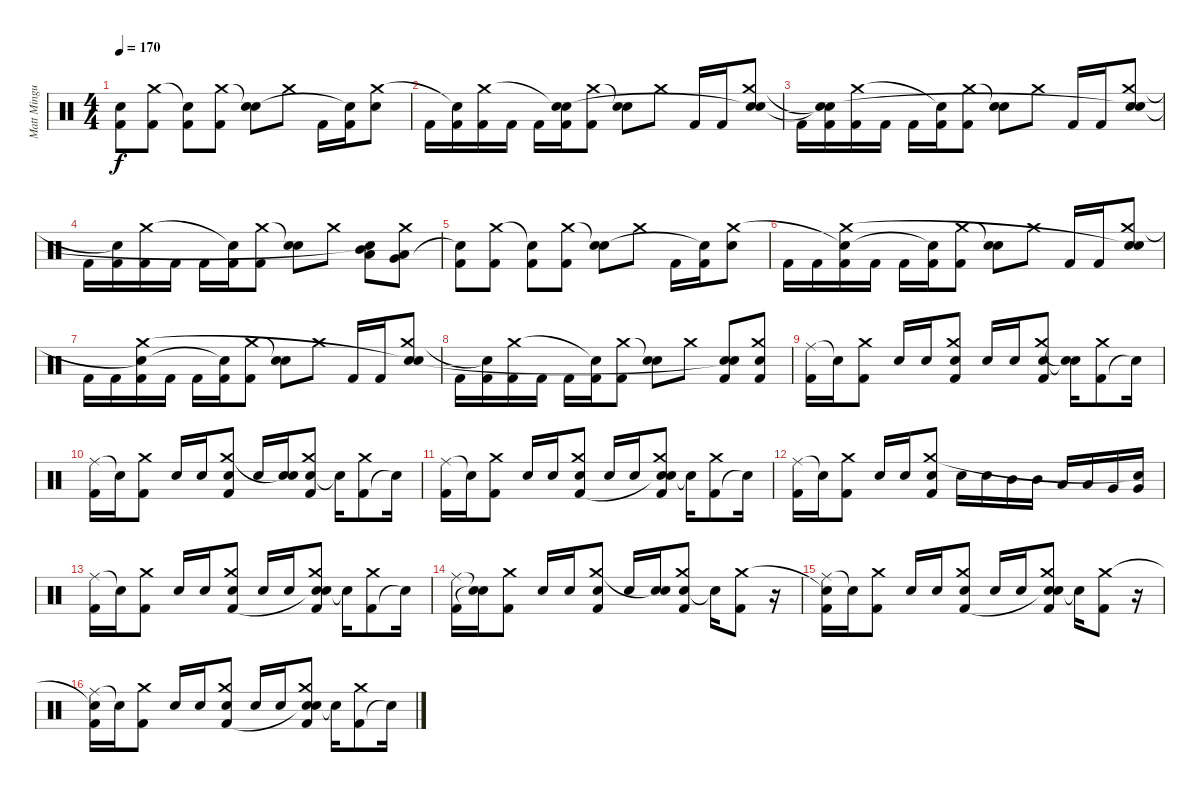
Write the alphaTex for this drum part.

\track ("Matt Mingus" "Matt Mingu") {instrument percussion}
\staff {score}
\articulation defaults
\ts (4 4)
\tempo 170
\clef neutral
\ks c
("Kick (hit) 2" "Snare (hit)"{t}).8{dy f} ("Kick (hit) 2" "Crash medium (hit)").8 ("Kick (hit) 2" "Snare (hit)"{t}).8 ("Kick (hit) 2" "Crash medium (hit)").8 ("Electric Snare (hit)" "Snare (hit)"{t}).8 "Crash medium (hit)".8 "Kick (hit) 2".16 ("Kick (hit) 2" "Snare (hit)"{t}).16 ("Electric Snare (hit)" "Crash medium (hit)").8 |
"Kick (hit) 2".16 ("Kick (hit) 2" "Snare (hit)"{t}).16 ("Kick (hit) 2" "Crash medium (hit)").16 "Kick (hit) 2".16 "Kick (hit) 2".16 ("Kick (hit) 2" "Snare (hit)"{t} "Snare (hit)"{t}).16 ("Kick (hit) 2" "Crash medium (hit)").8 ("Electric Snare (hit)" "Snare (hit)"{t}).8 "Crash medium (hit)".8 "Kick (hit) 2".16 "Kick (hit) 2".16 ("Electric Snare (hit)" "Crash medium (hit)" "Snare (hit)"{t}).8 |
"Kick (hit) 2".16 ("Kick (hit) 2" "Snare (hit)"{t} "Snare (hit)"{t}).16 ("Kick (hit) 2" "Crash medium (hit)").16 "Kick (hit) 2".16 "Kick (hit) 2".16 ("Kick (hit) 2" "Snare (hit)"{t}).16 ("Kick (hit) 2" "Crash medium (hit)").8 ("Electric Snare (hit)" "Snare (hit)"{t}).8 "Crash medium (hit)".8 "Kick (hit) 2".16 "Kick (hit) 2".16 ("Electric Snare (hit)" "Crash medium (hit)" "Snare (hit)"{t}).8 |
"Kick (hit) 2".16 ("Kick (hit) 2" "Snare (hit)"{t}).16 ("Kick (hit) 2" "Crash medium (hit)").16 "Kick (hit) 2".16 "Kick (hit) 2".16 ("Kick (hit) 2" "Snare (hit)"{t}).16 ("Kick (hit) 2" "Crash medium (hit)").8 ("Electric Snare (hit)" "Snare (hit)"{t}).8 "Crash medium (hit)".8 ("Mid Tom (hit)" "Low Tom (hit)" "Snare (hit)"{t}).8 ("Low Tom (hit)" "Very Low Tom (hit)" "Crash medium (hit)").8 |
("Kick (hit) 2" "Snare (hit)"{t}).8 ("Kick (hit) 2" "Crash medium (hit)").8 ("Kick (hit) 2" "Snare (hit)"{t}).8 ("Kick (hit) 2" "Crash medium (hit)").8 ("Electric Snare (hit)" "Snare (hit)"{t}).8 "Crash medium (hit)".8 "Kick (hit) 2".16 ("Kick (hit) 2" "Snare (hit)"{t}).16 ("Electric Snare (hit)" "Crash medium (hit)").8 |
"Kick (hit) 2".16 "Kick (hit) 2".16 ("Kick (hit) 2" "Snare (hit)"{t} "Crash medium (hit)").16 "Kick (hit) 2".16 "Kick (hit) 2".16 ("Kick (hit) 2" "Snare (hit)"{t}).16 ("Kick (hit) 2" "Crash medium (hit)").8 ("Electric Snare (hit)" "Snare (hit)"{t}).8 "Crash medium (hit)".8 "Kick (hit) 2".16 "Kick (hit) 2".16 ("Electric Snare (hit)" "Crash medium (hit)" "Snare (hit)"{t}).8 |
"Kick (hit) 2".16 "Kick (hit) 2".16 ("Kick (hit) 2" "Snare (hit)"{t} "Crash medium (hit)").16 "Kick (hit) 2".16 "Kick (hit) 2".16 ("Kick (hit) 2" "Snare (hit)"{t}).16 ("Kick (hit) 2" "Crash medium (hit)").8 ("Electric Snare (hit)" "Snare (hit)"{t}).8 "Crash medium (hit)".8 "Kick (hit) 2".16 "Kick (hit) 2".16 ("Electric Snare (hit)" "Crash medium (hit)" "Snare (hit)"{t}).8 |
"Kick (hit) 2".16 ("Kick (hit) 2" "Snare (hit)"{t}).16 ("Kick (hit) 2" "Crash medium (hit)").16 "Kick (hit) 2".16 "Kick (hit) 2".16 ("Kick (hit) 2" "Snare (hit)"{t}).16 ("Kick (hit) 2" "Crash medium (hit)").8 ("Electric Snare (hit)" "Snare (hit)"{t}).8 "Crash medium (hit)".8 ("Electric Snare (hit)" "Kick (hit) 2" "Snare (hit)"{t}).8 ("Electric Snare (hit)" "Kick (hit) 2" "Crash medium (hit)").8 |
("Ride (middle)" "Kick (hit) 2").16 "Snare (hit)"{t}.16 ("Crash medium (hit)" "Kick (hit) 2").8 "Electric Snare (hit)".16 "Electric Snare (hit)".16 ("Electric Snare (hit)" "Crash medium (hit)" "Kick (hit) 2").8 "Electric Snare (hit)".16 "Electric Snare (hit)".16 ("Electric Snare (hit)" "Crash medium (hit)" "Kick (hit) 2").8 ("Snare (hit)"{t} "Snare (hit)"{t}).16 ("Kick (hit) 2" "Crash medium (hit)").8 "Snare (hit)"{t}.16 |
("Ride (middle)" "Kick (hit) 2").16 "Snare (hit)"{t}.16 ("Crash medium (hit)" "Kick (hit) 2").8 "Electric Snare (hit)".16 "Electric Snare (hit)".16 ("Electric Snare (hit)" "Crash medium (hit)" "Kick (hit) 2").8 "Electric Snare (hit)".16 ("Electric Snare (hit)" "Snare (hit)"{t}).16 ("Electric Snare (hit)" "Crash medium (hit)" "Kick (hit) 2").8 "Snare (hit)"{t}.16 ("Kick (hit) 2" "Crash medium (hit)").8 "Snare (hit)"{t}.16 |
("Ride (middle)" "Kick (hit) 2").16 "Snare (hit)"{t}.16 ("Crash medium (hit)" "Kick (hit) 2").8 "Electric Snare (hit)".16 "Electric Snare (hit)".16 ("Electric Snare (hit)" "Crash medium (hit)" "Kick (hit) 2").8 "Electric Snare (hit)".16 "Electric Snare (hit)".16 ("Electric Snare (hit)" "Crash medium (hit)" "Snare (hit)"{t} "Kick (hit) 2").8 "Snare (hit)"{t}.16 ("Kick (hit) 2" "Crash medium (hit)").8 "Snare (hit)"{t}.16 |
("Ride (middle)" "Kick (hit) 2").16 "Snare (hit)"{t}.16 ("Crash medium (hit)" "Kick (hit) 2").8 "Electric Snare (hit)".16 "Electric Snare (hit)".16 ("Electric Snare (hit)" "Crash medium (hit)" "Kick (hit) 2").8 "Electric Snare (hit)".16 "Electric Snare (hit)".16 "Mid Tom (hit)".16 "Mid Tom (hit)".16 "Low Tom (hit)".16 "Low Tom (hit)".16 "Very Low Tom (hit)".16 ("Very Low Tom (hit)" "Snare (hit)"{t}).16 |
("Ride (middle)" "Kick (hit) 2").16 "Snare (hit)"{t}.16 ("Crash medium (hit)" "Kick (hit) 2").8 "Electric Snare (hit)".16 "Electric Snare (hit)".16 ("Electric Snare (hit)" "Crash medium (hit)" "Kick (hit) 2").8 "Electric Snare (hit)".16 "Electric Snare (hit)".16 ("Electric Snare (hit)" "Crash medium (hit)" "Snare (hit)"{t} "Kick (hit) 2").8 "Snare (hit)"{t}.16 ("Kick (hit) 2" "Crash medium (hit)").8 "Snare (hit)"{t}.16 |
("Ride (middle)" "Kick (hit) 2").16 ("Snare (hit)"{t} "Snare (hit)"{t}).16 ("Crash medium (hit)" "Kick (hit) 2").8 "Electric Snare (hit)".16 "Electric Snare (hit)".16 ("Electric Snare (hit)" "Crash medium (hit)" "Kick (hit) 2").8 "Electric Snare (hit)".16 ("Electric Snare (hit)" "Snare (hit)"{t}).16 ("Electric Snare (hit)" "Crash medium (hit)" "Kick (hit) 2").8 "Snare (hit)"{t}.16 ("Kick (hit) 2" "Crash medium (hit)").8 r.16 |
("Ride (middle)" "Snare (hit)"{t} "Kick (hit) 2").16 "Snare (hit)"{t}.16 ("Crash medium (hit)" "Kick (hit) 2").8 "Electric Snare (hit)".16 "Electric Snare (hit)".16 ("Electric Snare (hit)" "Crash medium (hit)" "Kick (hit) 2").8 "Electric Snare (hit)".16 "Electric Snare (hit)".16 ("Electric Snare (hit)" "Crash medium (hit)" "Snare (hit)"{t} "Kick (hit) 2").8 "Snare (hit)"{t}.16 ("Kick (hit) 2" "Crash medium (hit)").8 r.16 |
("Ride (middle)" "Snare (hit)"{t} "Kick (hit) 2").16 "Snare (hit)"{t}.16 ("Crash medium (hit)" "Kick (hit) 2").8 "Electric Snare (hit)".16 "Electric Snare (hit)".16 ("Electric Snare (hit)" "Crash medium (hit)" "Kick (hit) 2").8 "Electric Snare (hit)".16 "Electric Snare (hit)".16 ("Electric Snare (hit)" "Crash medium (hit)" "Snare (hit)"{t} "Kick (hit) 2").8 "Snare (hit)"{t}.16 ("Kick (hit) 2" "Crash medium (hit)").8 "Snare (hit)"{t}.16
